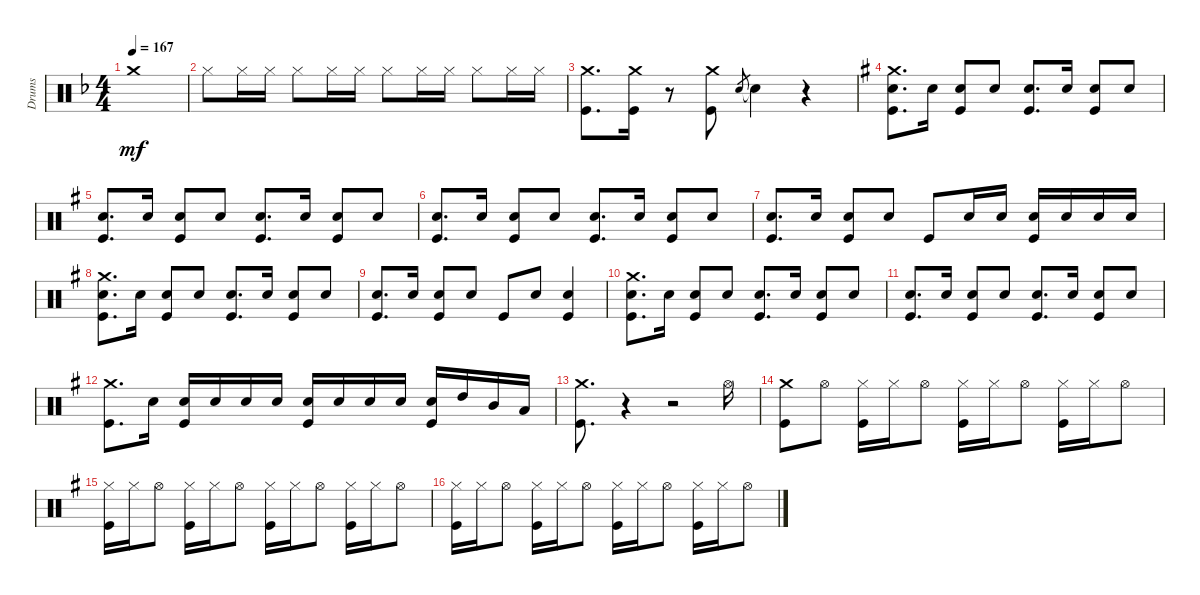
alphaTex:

\track ("Drums" "Drums") {instrument percussion}
\staff {score}
\articulation defaults
\ts (4 4)
\tempo 167
\clef neutral
\ks dminor "Crash medium (hit)"{t}.1{dy mf}
|
"Hi-Hat (closed)".8 "Hi-Hat (closed)".16 "Hi-Hat (closed)".16 "Hi-Hat (closed)".8 "Hi-Hat (closed)".16 "Hi-Hat (closed)".16 "Hi-Hat (closed)".8 "Hi-Hat (closed)".16 "Hi-Hat (closed)".16 "Hi-Hat (closed)".8 "Hi-Hat (closed)".16 "Hi-Hat (closed)".16 |
("Crash medium (hit)" "Kick (hit)").8{d} ("Kick (hit)" "Crash medium (hit)").16 r.8 ("Crash medium (hit)" "Kick (hit)").8 "Snare (hit)".8{gr} "Snare (hit) 2"{t}.4 r.4 |
\ks eminor
("Crash medium (hit)" "Snare (hit) 2" "Kick (hit)").8{d} "Snare (hit) 2".16 ("Snare (hit) 2" "Kick (hit)").8 "Snare (hit) 2".8 ("Snare (hit) 2" "Kick (hit)").8{d} "Snare (hit) 2".16 ("Kick (hit)" "Snare (hit) 2").8 "Snare (hit) 2".8 |
("Snare (hit) 2" "Kick (hit)").8{d} "Snare (hit) 2".16 ("Kick (hit)" "Snare (hit) 2").8 "Snare (hit) 2".8 ("Snare (hit) 2" "Kick (hit)").8{d} "Snare (hit) 2".16 ("Kick (hit)" "Snare (hit) 2").8 "Snare (hit) 2".8 |
("Snare (hit) 2" "Kick (hit)").8{d} "Snare (hit) 2".16 ("Kick (hit)" "Snare (hit) 2").8 "Snare (hit) 2".8 ("Snare (hit) 2" "Kick (hit)").8{d} "Snare (hit) 2".16 ("Kick (hit)" "Snare (hit) 2").8 "Snare (hit) 2".8 |
("Snare (hit) 2" "Kick (hit)").8{d} "Snare (hit) 2".16 ("Kick (hit)" "Snare (hit) 2").8 "Snare (hit) 2".8 "Kick (hit)".8 "Snare (hit) 2".16 "Snare (hit) 2".16 ("Snare (hit) 2" "Kick (hit)").16 "Snare (hit) 2".16 "Snare (hit) 2".16 "Snare (hit) 2".16 |
("Crash medium (hit)" "Snare (hit) 2" "Kick (hit)").8{d} "Snare (hit) 2".16 ("Snare (hit) 2" "Kick (hit)").8 "Snare (hit) 2".8 ("Snare (hit) 2" "Kick (hit)").8{d} "Snare (hit) 2".16 ("Kick (hit)" "Snare (hit) 2").8 "Snare (hit) 2".8 |
("Snare (hit) 2" "Kick (hit)").8{d} "Snare (hit) 2".16 ("Kick (hit)" "Snare (hit) 2").8 "Snare (hit) 2".8 "Kick (hit)".8 "Snare (hit) 2".8 ("Snare (hit) 2" "Kick (hit)").4 |
("Crash medium (hit)" "Snare (hit) 2" "Kick (hit)").8{d} "Snare (hit) 2".16 ("Snare (hit) 2" "Kick (hit)").8 "Snare (hit) 2".8 ("Snare (hit) 2" "Kick (hit)").8{d} "Snare (hit) 2".16 ("Kick (hit)" "Snare (hit) 2").8 "Snare (hit) 2".8 |
("Snare (hit) 2" "Kick (hit)").8{d} "Snare (hit) 2".16 ("Kick (hit)" "Snare (hit) 2").8 "Snare (hit) 2".8 ("Snare (hit) 2" "Kick (hit)").8{d} "Snare (hit) 2".16 ("Kick (hit)" "Snare (hit) 2").8 "Snare (hit) 2".8 |
("Crash medium (hit)" "Kick (hit)").8{d} "Snare (hit) 2".16 ("Snare (hit) 2" "Kick (hit)").16 "Snare (hit) 2".16 "Snare (hit) 2".16 "Snare (hit) 2".16 ("Snare (hit) 2" "Kick (hit)").16 "Snare (hit) 2".16 "Snare (hit) 2".16 "Snare (hit) 2".16 ("Kick (hit)" "Snare (hit) 2").16 "High Tom (hit)".16 "Mid Tom (hit)".16 "Low Tom (hit)".16 |
("Kick (hit)" "Crash medium (hit)").8{d} r.4 r.2 "Hi-Hat (open)".16 |
("Kick (hit)" "Crash medium (hit)").8 "Hi-Hat (open)".8 ("Hi-Hat (closed)" "Kick (hit)").16 "Hi-Hat (closed)".16 "Hi-Hat (open)".8 ("Kick (hit)" "Hi-Hat (closed)").16 "Hi-Hat (closed)".16 "Hi-Hat (open)".8 ("Hi-Hat (closed)" "Kick (hit)").16 "Hi-Hat (closed)".16 "Hi-Hat (open)".8 |
("Hi-Hat (closed)" "Kick (hit)").16 "Hi-Hat (closed)".16 "Hi-Hat (open)".8 ("Kick (hit)" "Hi-Hat (closed)").16 "Hi-Hat (closed)".16 "Hi-Hat (open)".8 ("Hi-Hat (closed)" "Kick (hit)").16 "Hi-Hat (closed)".16 "Hi-Hat (open)".8 ("Kick (hit)" "Hi-Hat (closed)").16 "Hi-Hat (closed)".16 "Hi-Hat (open)".8 |
("Hi-Hat (closed)" "Kick (hit)").16 "Hi-Hat (closed)".16 "Hi-Hat (open)".8 ("Kick (hit)" "Hi-Hat (closed)").16 "Hi-Hat (closed)".16 "Hi-Hat (open)".8 ("Hi-Hat (closed)" "Kick (hit)").16 "Hi-Hat (closed)".16 "Hi-Hat (open)".8 ("Kick (hit)" "Hi-Hat (closed)").16 "Hi-Hat (closed)".16 "Hi-Hat (open)".8
